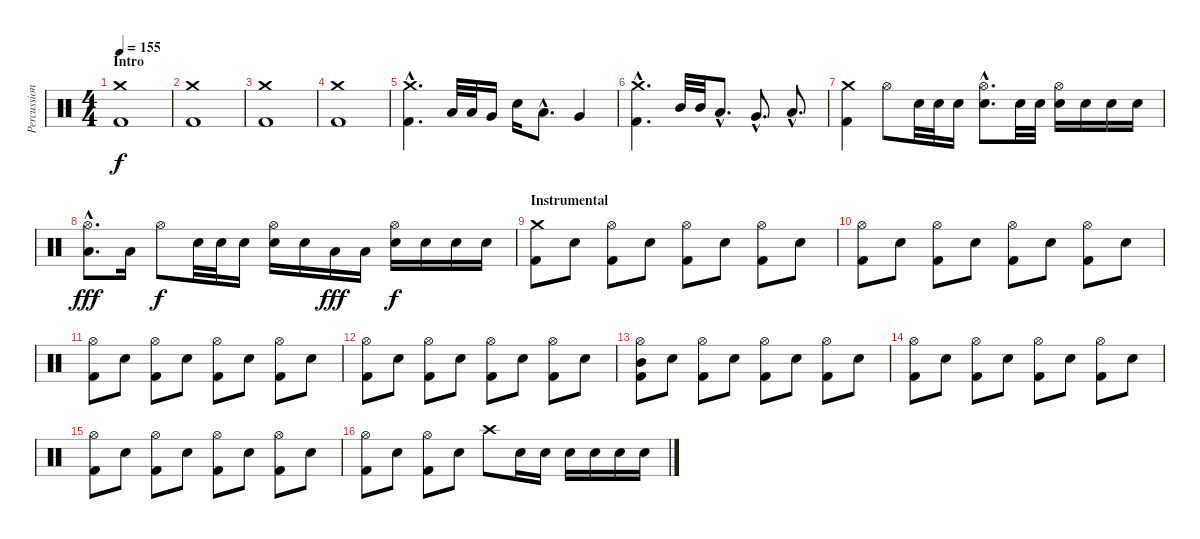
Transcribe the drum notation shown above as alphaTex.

\track ("Percussion" "Percussion") {instrument percussion}
\staff {score}
\articulation defaults
\ts (4 4)
\section ("" "Intro")
\tempo 155
\clef neutral
\ks c
("Crash medium (hit)" "Kick (hit) 2").1{dy f} |
("Crash medium (hit)" "Kick (hit) 2").1 |
("Crash medium (hit)" "Kick (hit) 2").1 |
("Crash medium (hit)" "Kick (hit) 2").1 |
("Crash medium (hit)"{hac} "Kick (hit) 2"{hac}).4{d} "Low Floor Tom (hit)".32 "Low Floor Tom (hit)".32 "Very Low Tom (hit)".16 "Electric Snare (hit)".16 "Low Tom (hit)"{hac}.8{d} "Very Low Tom (hit)".4 |
("Crash medium (hit)"{hac} "Kick (hit) 2"{hac}).4{d} "Mid Tom (hit)".32 "Mid Tom (hit)".32 "Low Tom (hit)"{hac}.8{d} "Very Low Tom (hit)"{hac}.8{d} "Low Floor Tom (hit)"{hac}.8{d} |
("Crash medium (hit)" "Kick (hit) 2").4 "Hi-Hat (open)".8 "Electric Snare (hit)".32 "Electric Snare (hit)".32 "Electric Snare (hit)".16 ("Hi-Hat (open)"{hac} "Electric Snare (hit)"{hac}).8{d} "Electric Snare (hit)".32 "Electric Snare (hit)".32 ("Hi-Hat (open)" "Electric Snare (hit)").16 "Electric Snare (hit)".16 "Electric Snare (hit)".16 "Electric Snare (hit)".16 |
("Hi-Hat (open)"{hac} "Low Floor Tom (hit)"{hac}).8{d dy fff} "Low Floor Tom (hit)".16 "Hi-Hat (open)".8{dy f} "Electric Snare (hit)".32 "Electric Snare (hit)".32 "Electric Snare (hit)".16 ("Hi-Hat (open)" "Electric Snare (hit)").16 "Electric Snare (hit)".16 "Low Floor Tom (hit)".16{dy fff} "Low Floor Tom (hit)".16 ("Hi-Hat (open)" "Electric Snare (hit)").16{dy f} "Electric Snare (hit)".16 "Electric Snare (hit)".16 "Electric Snare (hit)".16 |
\section ("" "Instrumental")
("Crash medium (hit)" "Kick (hit) 2").8 "Electric Snare (hit)".8 ("Hi-Hat (open)" "Kick (hit) 2").8 "Electric Snare (hit)".8 ("Hi-Hat (open)" "Kick (hit) 2").8 "Electric Snare (hit)".8 ("Hi-Hat (open)" "Kick (hit) 2").8 "Electric Snare (hit)".8 |
("Hi-Hat (open)" "Kick (hit) 2").8 "Electric Snare (hit)".8 ("Hi-Hat (open)" "Kick (hit) 2").8 "Electric Snare (hit)".8 ("Hi-Hat (open)" "Kick (hit) 2").8 "Electric Snare (hit)".8 ("Hi-Hat (open)" "Kick (hit) 2").8 "Electric Snare (hit)".8 |
("Hi-Hat (open)" "Kick (hit) 2").8 "Electric Snare (hit)".8 ("Hi-Hat (open)" "Kick (hit) 2").8 "Electric Snare (hit)".8 ("Hi-Hat (open)" "Kick (hit) 2").8 "Electric Snare (hit)".8 ("Hi-Hat (open)" "Kick (hit) 2").8 "Electric Snare (hit)".8 |
("Hi-Hat (open)" "Kick (hit) 2").8 "Electric Snare (hit)".8 ("Hi-Hat (open)" "Kick (hit) 2").8 "Electric Snare (hit)".8 ("Hi-Hat (open)" "Kick (hit) 2").8 "Electric Snare (hit)".8 ("Hi-Hat (open)" "Kick (hit) 2").8 "Electric Snare (hit)".8 |
("Hi-Hat (open)" "Mid Tom (hit)" "Kick (hit) 2").8 "Electric Snare (hit)".8 ("Hi-Hat (open)" "Kick (hit) 2").8 "Electric Snare (hit)".8 ("Hi-Hat (open)" "Kick (hit) 2").8 "Electric Snare (hit)".8 ("Hi-Hat (open)" "Kick (hit) 2").8 "Electric Snare (hit)".8 |
("Hi-Hat (open)" "Kick (hit) 2").8 "Electric Snare (hit)".8 ("Hi-Hat (open)" "Kick (hit) 2").8 "Electric Snare (hit)".8 ("Hi-Hat (open)" "Kick (hit) 2").8 "Electric Snare (hit)".8 ("Hi-Hat (open)" "Kick (hit) 2").8 "Electric Snare (hit)".8 |
("Hi-Hat (open)" "Kick (hit) 2").8 "Electric Snare (hit)".8 ("Hi-Hat (open)" "Kick (hit) 2").8 "Electric Snare (hit)".8 ("Hi-Hat (open)" "Kick (hit) 2").8 "Electric Snare (hit)".8 ("Hi-Hat (open)" "Kick (hit) 2").8 "Electric Snare (hit)".8 |
("Hi-Hat (open)" "Kick (hit) 2").8 "Electric Snare (hit)".8 ("Hi-Hat (open)" "Kick (hit) 2").8 "Electric Snare (hit)".8 "Crash high (hit)".8 "Electric Snare (hit)".16 "Electric Snare (hit)".16 "Electric Snare (hit)".16 "Electric Snare (hit)".16 "Electric Snare (hit)".16 "Electric Snare (hit)".16
